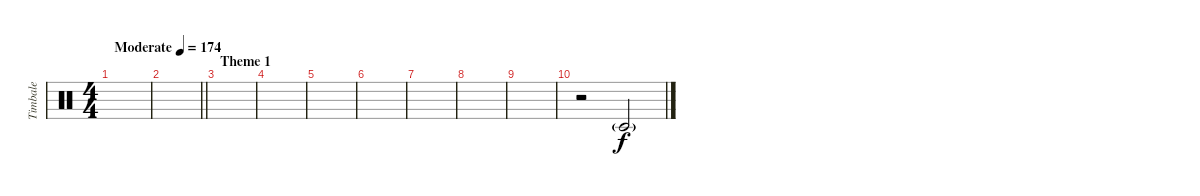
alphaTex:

\track ("Timbale" "Timbale") {instrument percussion}
\staff {score}
\articulation defaults
\ts (4 4)
\tempo (174 "Moderate")
\clef neutral
\ks c
|
\barLineRight lightlight
|
\section ("" "Theme 1")
|
|
|
|
|
|
|
r.2 "Timbale low (hit)"{g}.2
